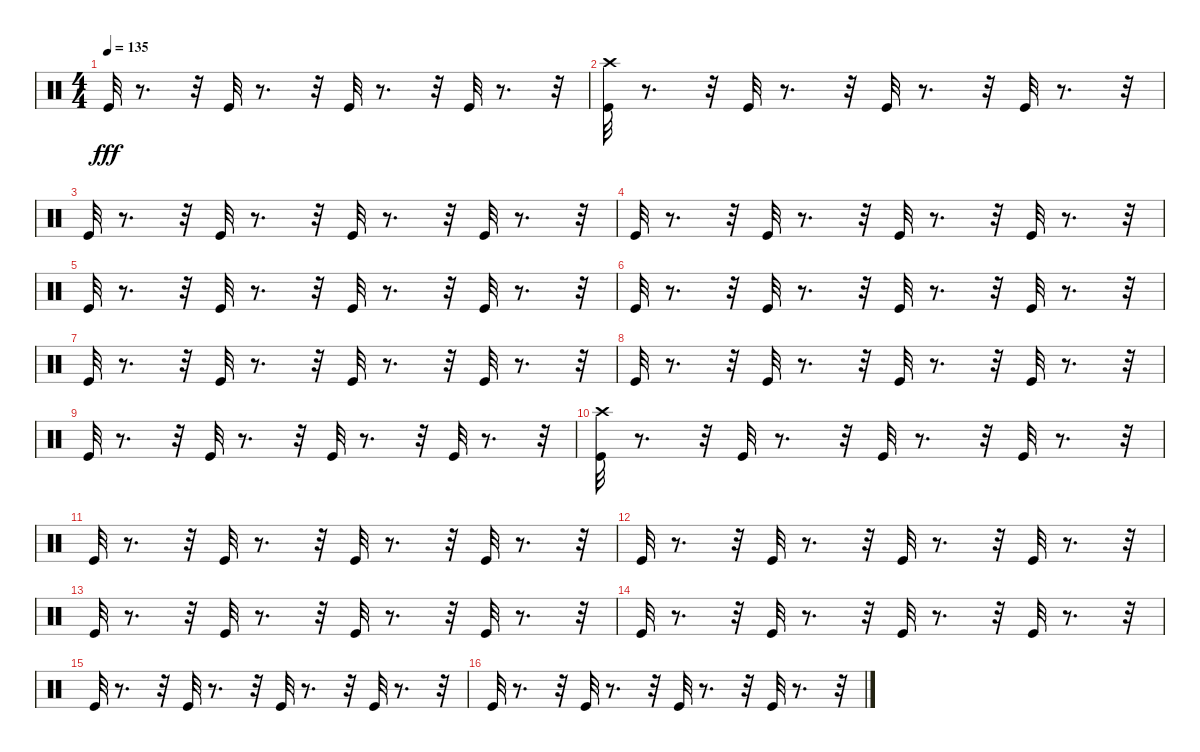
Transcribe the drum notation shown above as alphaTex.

\track "" {instrument percussion}
\staff {score}
\articulation defaults
\ts (4 4)
\tempo 135
\clef neutral
\ks c "Kick (hit)".32{dy fff}
r.8{d} r.32 "Kick (hit)".32 r.8{d} r.32 "Kick (hit)".32 r.8{d} r.32 "Kick (hit)".32 r.8{d} r.32 |
("Kick (hit)" "Crash high (hit)").32 r.8{d} r.32 "Kick (hit)".32 r.8{d} r.32 "Kick (hit)".32 r.8{d} r.32 "Kick (hit)".32 r.8{d} r.32 |
"Kick (hit)".32 r.8{d} r.32 "Kick (hit)".32 r.8{d} r.32 "Kick (hit)".32 r.8{d} r.32 "Kick (hit)".32 r.8{d} r.32 |
"Kick (hit)".32 r.8{d} r.32 "Kick (hit)".32 r.8{d} r.32 "Kick (hit)".32 r.8{d} r.32 "Kick (hit)".32 r.8{d} r.32 |
"Kick (hit)".32 r.8{d} r.32 "Kick (hit)".32 r.8{d} r.32 "Kick (hit)".32 r.8{d} r.32 "Kick (hit)".32 r.8{d} r.32 |
"Kick (hit)".32 r.8{d} r.32 "Kick (hit)".32 r.8{d} r.32 "Kick (hit)".32 r.8{d} r.32 "Kick (hit)".32 r.8{d} r.32 |
"Kick (hit)".32 r.8{d} r.32 "Kick (hit)".32 r.8{d} r.32 "Kick (hit)".32 r.8{d} r.32 "Kick (hit)".32 r.8{d} r.32 |
"Kick (hit)".32 r.8{d} r.32 "Kick (hit)".32 r.8{d} r.32 "Kick (hit)".32 r.8{d} r.32 "Kick (hit)".32 r.8{d} r.32 |
"Kick (hit)".32 r.8{d} r.32 "Kick (hit)".32 r.8{d} r.32 "Kick (hit)".32 r.8{d} r.32 "Kick (hit)".32 r.8{d} r.32 |
("Kick (hit)" "Crash high (hit)").32 r.8{d} r.32 "Kick (hit)".32 r.8{d} r.32 "Kick (hit)".32 r.8{d} r.32 "Kick (hit)".32 r.8{d} r.32 |
"Kick (hit)".32 r.8{d} r.32 "Kick (hit)".32 r.8{d} r.32 "Kick (hit)".32 r.8{d} r.32 "Kick (hit)".32 r.8{d} r.32 |
"Kick (hit)".32 r.8{d} r.32 "Kick (hit)".32 r.8{d} r.32 "Kick (hit)".32 r.8{d} r.32 "Kick (hit)".32 r.8{d} r.32 |
"Kick (hit)".32 r.8{d} r.32 "Kick (hit)".32 r.8{d} r.32 "Kick (hit)".32 r.8{d} r.32 "Kick (hit)".32 r.8{d} r.32 |
"Kick (hit)".32 r.8{d} r.32 "Kick (hit)".32 r.8{d} r.32 "Kick (hit)".32 r.8{d} r.32 "Kick (hit)".32 r.8{d} r.32 |
"Kick (hit)".32 r.8{d} r.32 "Kick (hit)".32 r.8{d} r.32 "Kick (hit)".32 r.8{d} r.32 "Kick (hit)".32 r.8{d} r.32 |
"Kick (hit)".32 r.8{d} r.32 "Kick (hit)".32 r.8{d} r.32 "Kick (hit)".32 r.8{d} r.32 "Kick (hit)".32 r.8{d} r.32
